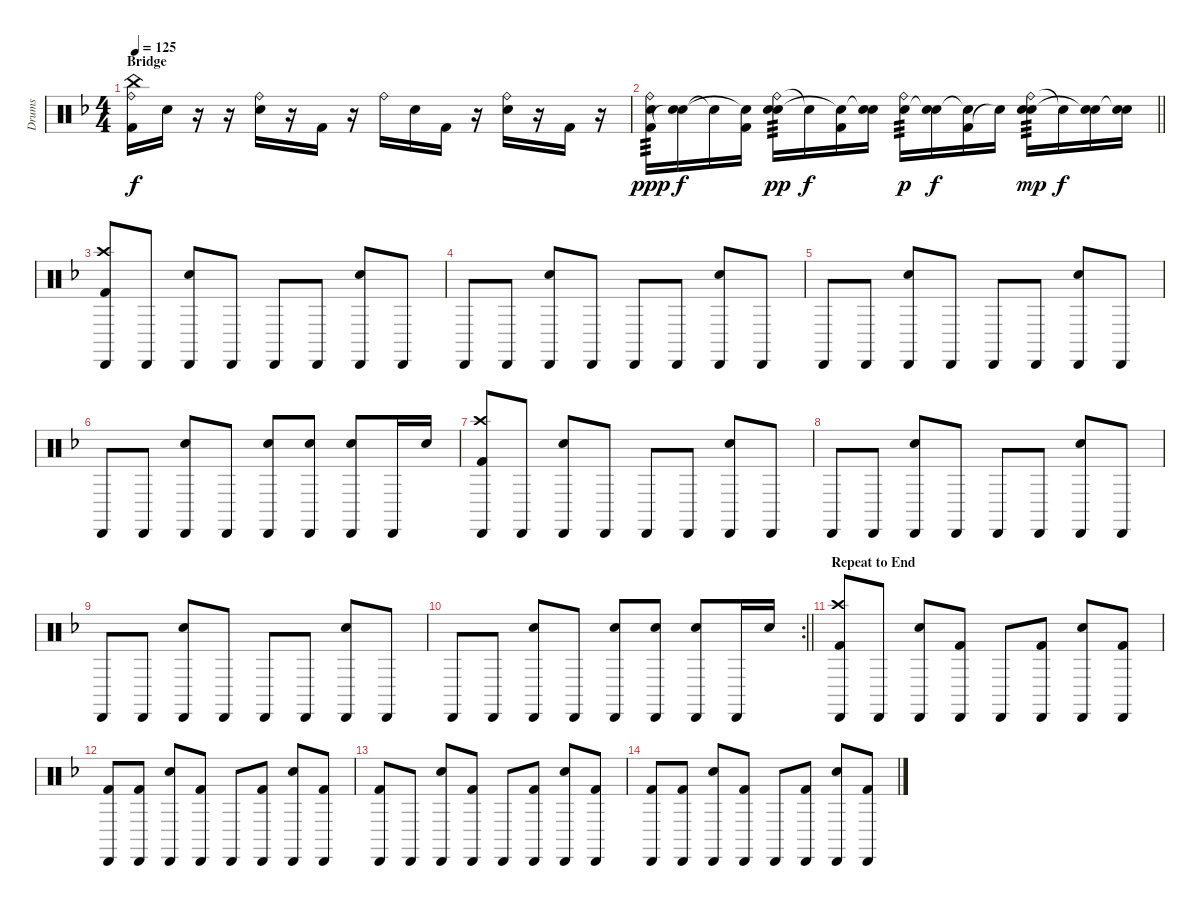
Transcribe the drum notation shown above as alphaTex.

\track ("Drums" "Drums") {instrument percussion}
\staff {score}
\articulation defaults
\ts (4 4)
\section ("" "Bridge")
\tempo 125
\clef neutral
\ks f
("Ride (bell)" "Kick (hit) 2" "China (hit)").16{dy f} "Electric Snare (hit)".16 r.16 r.16 ("Ride (bell)" "Electric Snare (hit)").16 r.16 "Kick (hit) 2".16 r.16 "Ride (bell)".16 "Electric Snare (hit)".16 "Kick (hit) 2".16 r.16 ("Ride (bell)" "Electric Snare (hit)").16 r.16 "Kick (hit) 2".16 r.16 |
\barLineRight lightlight
("Ride (bell)" "Kick (hit) 2" "Snare (hit) 2").16{tp 3 dy ppp} ("Electric Snare (hit)" "Snare (hit)"{t}).16{dy f} "Snare (hit)"{t}.16 ("Kick (hit) 2" "Snare (hit)"{t}).16 ("Ride (bell)" "Electric Snare (hit)" "Snare (hit) 2").16{tp 3 dy pp} "Snare (hit)"{t}.16{dy f} ("Kick (hit) 2" "Snare (hit) 2"{t}).16 ("Electric Snare (hit)" "Snare (hit)"{t}).16 ("Ride (bell)" "Snare (hit) 2").16{tp 3 dy p} ("Electric Snare (hit)" "Snare (hit)"{t}).16{dy f} ("Kick (hit) 2" "Snare (hit)"{t}).16 "Snare (hit)"{t}.16 ("Ride (bell)" "Electric Snare (hit)" "Snare (hit) 2").16{tp 3 dy mp} "Snare (hit)"{t}.16{dy f} ("Electric Snare (hit)" "Snare (hit)"{t}).16 ("Electric Snare (hit)" "Snare (hit)"{t}).16 |
\section ("" "")
("Cabasa (hit)" "Kick (hit) 2" "Crash high (hit)").8 "Cabasa (hit)".8 ("Cabasa (hit)" "Electric Snare (hit)").8 "Cabasa (hit)".8 "Cabasa (hit)".8 "Cabasa (hit)".8 ("Cabasa (hit)" "Electric Snare (hit)").8 "Cabasa (hit)".8 |
"Cabasa (hit)".8 "Cabasa (hit)".8 ("Cabasa (hit)" "Electric Snare (hit)").8 "Cabasa (hit)".8 "Cabasa (hit)".8 "Cabasa (hit)".8 ("Cabasa (hit)" "Electric Snare (hit)").8 "Cabasa (hit)".8 |
"Cabasa (hit)".8 "Cabasa (hit)".8 ("Cabasa (hit)" "Electric Snare (hit)").8 "Cabasa (hit)".8 "Cabasa (hit)".8 "Cabasa (hit)".8 ("Cabasa (hit)" "Electric Snare (hit)").8 "Cabasa (hit)".8 |
"Cabasa (hit)".8 "Cabasa (hit)".8 ("Cabasa (hit)" "Electric Snare (hit)").8 "Cabasa (hit)".8 ("Cabasa (hit)" "Electric Snare (hit)").8 ("Cabasa (hit)" "Electric Snare (hit)").8 ("Cabasa (hit)" "Electric Snare (hit)").8 "Cabasa (hit)".16 "Electric Snare (hit)".16 |
("Cabasa (hit)" "Kick (hit) 2" "Crash high (hit)").8 "Cabasa (hit)".8 ("Cabasa (hit)" "Electric Snare (hit)").8 "Cabasa (hit)".8 "Cabasa (hit)".8 "Cabasa (hit)".8 ("Cabasa (hit)" "Electric Snare (hit)").8 "Cabasa (hit)".8 |
"Cabasa (hit)".8 "Cabasa (hit)".8 ("Cabasa (hit)" "Electric Snare (hit)").8 "Cabasa (hit)".8 "Cabasa (hit)".8 "Cabasa (hit)".8 ("Cabasa (hit)" "Electric Snare (hit)").8 "Cabasa (hit)".8 |
"Cabasa (hit)".8 "Cabasa (hit)".8 ("Cabasa (hit)" "Electric Snare (hit)").8 "Cabasa (hit)".8 "Cabasa (hit)".8 "Cabasa (hit)".8 ("Cabasa (hit)" "Electric Snare (hit)").8 "Cabasa (hit)".8 |
\rc 2
\barLineRight lightlight "Cabasa (hit)".8 "Cabasa (hit)".8
("Cabasa (hit)" "Electric Snare (hit)").8 "Cabasa (hit)".8 ("Cabasa (hit)" "Electric Snare (hit)").8 ("Cabasa (hit)" "Electric Snare (hit)").8 ("Cabasa (hit)" "Electric Snare (hit)").8 "Cabasa (hit)".16 "Electric Snare (hit)".16 |
\section ("" "Repeat to End")
("Cabasa (hit)" "Kick (hit) 2" "Crash high (hit)").8 "Cabasa (hit)".8 ("Cabasa (hit)" "Electric Snare (hit)").8 ("Cabasa (hit)" "Kick (hit) 2").8 "Cabasa (hit)".8 ("Cabasa (hit)" "Kick (hit) 2").8 ("Cabasa (hit)" "Electric Snare (hit)").8 ("Cabasa (hit)" "Kick (hit) 2").8 |
("Cabasa (hit)" "Kick (hit) 2").8 ("Cabasa (hit)" "Kick (hit) 2").8 ("Cabasa (hit)" "Electric Snare (hit)").8 ("Cabasa (hit)" "Kick (hit) 2").8 "Cabasa (hit)".8 ("Cabasa (hit)" "Kick (hit) 2").8 ("Cabasa (hit)" "Electric Snare (hit)").8 ("Cabasa (hit)" "Kick (hit) 2").8 |
("Cabasa (hit)" "Kick (hit) 2").8 "Cabasa (hit)".8 ("Cabasa (hit)" "Electric Snare (hit)").8 ("Cabasa (hit)" "Kick (hit) 2").8 "Cabasa (hit)".8 ("Cabasa (hit)" "Kick (hit) 2").8 ("Cabasa (hit)" "Electric Snare (hit)").8 ("Cabasa (hit)" "Kick (hit) 2").8 |
("Cabasa (hit)" "Kick (hit) 2").8 ("Cabasa (hit)" "Kick (hit) 2").8 ("Cabasa (hit)" "Electric Snare (hit)").8 ("Cabasa (hit)" "Kick (hit) 2").8 "Cabasa (hit)".8 ("Cabasa (hit)" "Kick (hit) 2").8 ("Cabasa (hit)" "Electric Snare (hit)").8 ("Cabasa (hit)" "Kick (hit) 2").8
